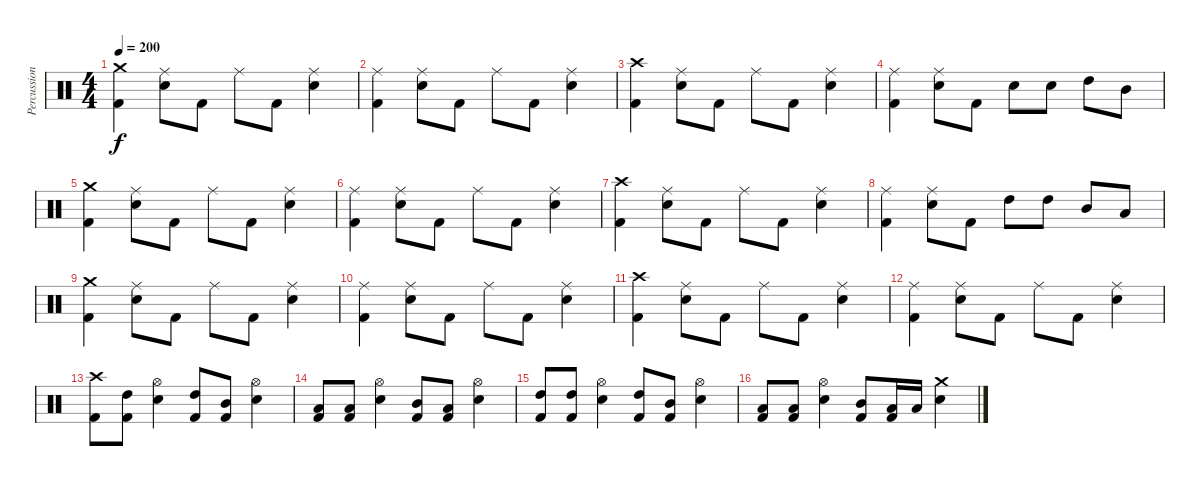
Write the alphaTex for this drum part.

\track ("Percussioni" "Percussion") {instrument percussion}
\staff {score}
\articulation defaults
\ts (4 4)
\tempo 200
\clef neutral
\ks c
("Crash medium (hit)" "Kick (hit) 2").4{dy f} ("Ride (middle)" "Electric Snare (hit)").8 "Kick (hit) 2".8 "Ride (middle)".8 "Kick (hit) 2".8 ("Ride (middle)" "Electric Snare (hit)").4 |
("Ride (middle)" "Kick (hit) 2").4 ("Ride (middle)" "Electric Snare (hit)").8 "Kick (hit) 2".8 "Ride (middle)".8 "Kick (hit) 2".8 ("Ride (middle)" "Electric Snare (hit)").4 |
("Crash high (hit)" "Kick (hit) 2").4 ("Ride (middle)" "Electric Snare (hit)").8 "Kick (hit) 2".8 "Ride (middle)".8 "Kick (hit) 2".8 ("Ride (middle)" "Electric Snare (hit)").4 |
("Ride (middle)" "Kick (hit) 2").4 ("Ride (middle)" "Electric Snare (hit)").8 "Kick (hit) 2".8 "Electric Snare (hit)".8 "Electric Snare (hit)".8 "High Tom (hit)".8 "Mid Tom (hit)".8 |
("Crash medium (hit)" "Kick (hit) 2").4 ("Ride (middle)" "Electric Snare (hit)").8 "Kick (hit) 2".8 "Ride (middle)".8 "Kick (hit) 2".8 ("Ride (middle)" "Electric Snare (hit)").4 |
("Ride (middle)" "Kick (hit) 2").4 ("Ride (middle)" "Electric Snare (hit)").8 "Kick (hit) 2".8 "Ride (middle)".8 "Kick (hit) 2".8 ("Ride (middle)" "Electric Snare (hit)").4 |
("Crash high (hit)" "Kick (hit) 2").4 ("Ride (middle)" "Electric Snare (hit)").8 "Kick (hit) 2".8 "Ride (middle)".8 "Kick (hit) 2".8 ("Ride (middle)" "Electric Snare (hit)").4 |
("Ride (middle)" "Kick (hit) 2").4 ("Ride (middle)" "Electric Snare (hit)").8 "Kick (hit) 2".8 "High Tom (hit)".8 "High Tom (hit)".8 "Mid Tom (hit)".8 "Low Tom (hit)".8 |
("Crash medium (hit)" "Kick (hit) 2").4 ("Ride (middle)" "Electric Snare (hit)").8 "Kick (hit) 2".8 "Ride (middle)".8 "Kick (hit) 2".8 ("Ride (middle)" "Electric Snare (hit)").4 |
("Ride (middle)" "Kick (hit) 2").4 ("Ride (middle)" "Electric Snare (hit)").8 "Kick (hit) 2".8 "Ride (middle)".8 "Kick (hit) 2".8 ("Ride (middle)" "Electric Snare (hit)").4 |
("Crash high (hit)" "Kick (hit) 2").4 ("Ride (middle)" "Electric Snare (hit)").8 "Kick (hit) 2".8 "Ride (middle)".8 "Kick (hit) 2".8 ("Ride (middle)" "Electric Snare (hit)").4 |
("Ride (middle)" "Kick (hit) 2").4 ("Ride (middle)" "Electric Snare (hit)").8 "Kick (hit) 2".8 "Ride (middle)".8 "Kick (hit) 2".8 ("Ride (middle)" "Electric Snare (hit)").4 |
("Crash high (hit)" "Kick (hit) 2").8 ("High Tom (hit)" "Kick (hit) 2").8 ("Hi-Hat (open)" "Electric Snare (hit)").4 ("High Tom (hit)" "Kick (hit) 2").8 ("Mid Tom (hit)" "Kick (hit) 2").8 ("Hi-Hat (open)" "Electric Snare (hit)").4 |
("Low Tom (hit)" "Kick (hit) 2").8 ("Low Tom (hit)" "Kick (hit) 2").8 ("Hi-Hat (open)" "Electric Snare (hit)").4 ("Mid Tom (hit)" "Kick (hit) 2").8 ("Low Tom (hit)" "Kick (hit) 2").8 ("Hi-Hat (open)" "Electric Snare (hit)").4 |
("High Tom (hit)" "Kick (hit) 2").8 ("High Tom (hit)" "Kick (hit) 2").8 ("Hi-Hat (open)" "Electric Snare (hit)").4 ("High Tom (hit)" "Kick (hit) 2").8 ("Mid Tom (hit)" "Kick (hit) 2").8 ("Hi-Hat (open)" "Electric Snare (hit)").4 |
("Low Tom (hit)" "Kick (hit) 2").8 ("Low Tom (hit)" "Kick (hit) 2").8 ("Hi-Hat (open)" "Electric Snare (hit)").4 ("Mid Tom (hit)" "Kick (hit) 2").8 ("Low Tom (hit)" "Kick (hit) 2").16 "Low Tom (hit)".16 ("Crash medium (hit)" "Electric Snare (hit)").4
